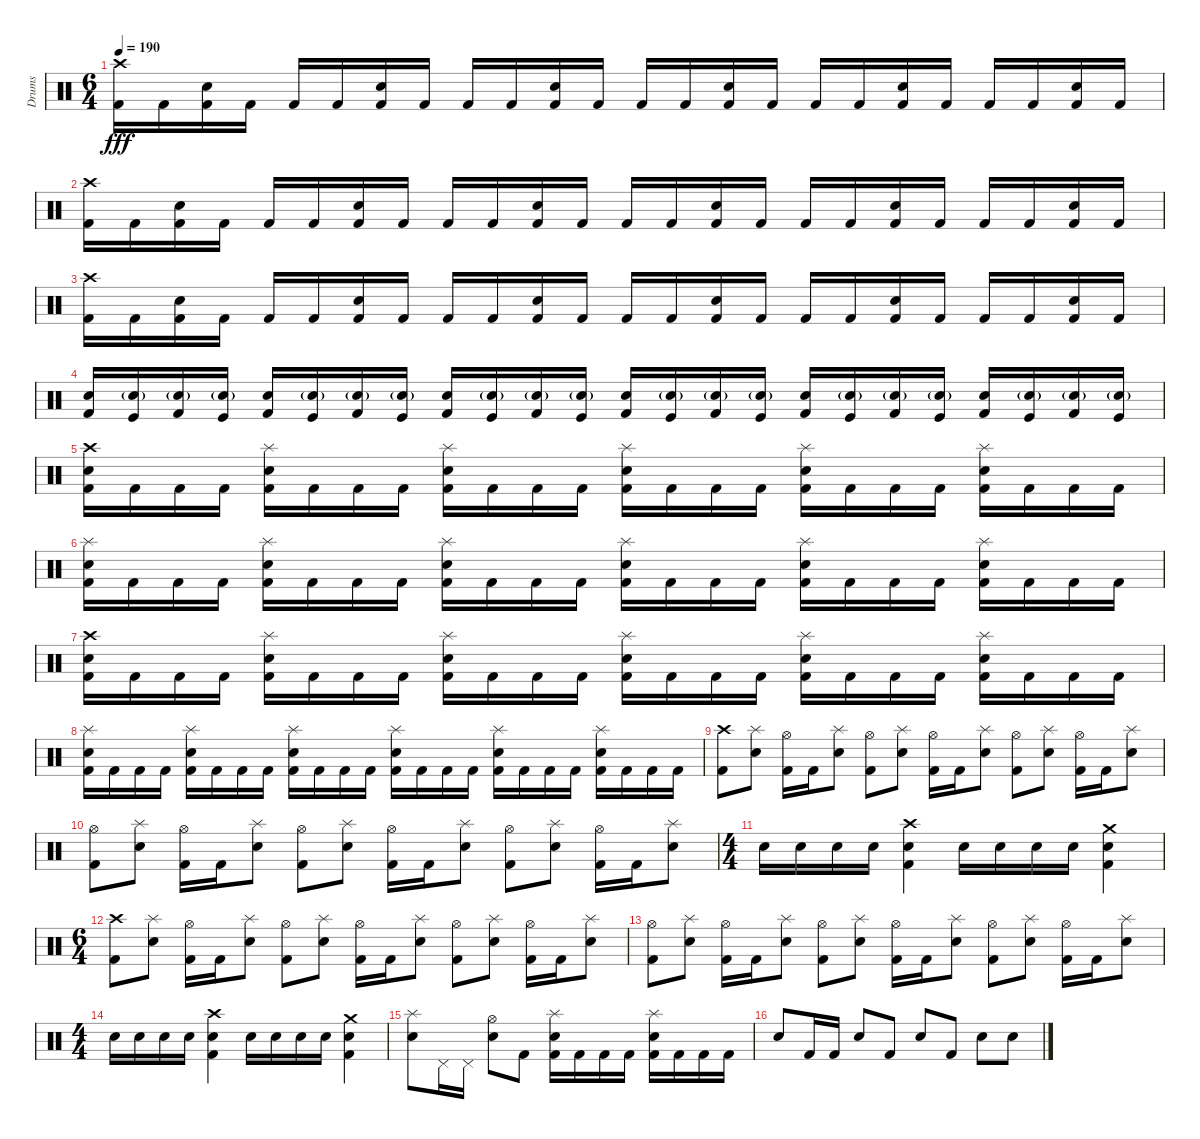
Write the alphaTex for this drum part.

\track ("Drums" "Drums") {instrument percussion}
\staff {score}
\articulation defaults
\ts (6 4)
\tempo 190
\clef neutral
\ks c
("Crash high (hit)" "Kick (hit) 2").16{dy fff} "Kick (hit) 2".16 ("Snare (hit) 2" "Kick (hit) 2").16 "Kick (hit) 2".16 "Kick (hit) 2".16 "Kick (hit) 2".16 ("Snare (hit) 2" "Kick (hit) 2").16 "Kick (hit) 2".16 "Kick (hit) 2".16 "Kick (hit) 2".16 ("Snare (hit) 2" "Kick (hit) 2").16 "Kick (hit) 2".16 "Kick (hit) 2".16 "Kick (hit) 2".16 ("Snare (hit) 2" "Kick (hit) 2").16 "Kick (hit) 2".16 "Kick (hit) 2".16 "Kick (hit) 2".16 ("Snare (hit) 2" "Kick (hit) 2").16 "Kick (hit) 2".16 "Kick (hit) 2".16 "Kick (hit) 2".16 ("Snare (hit) 2" "Kick (hit) 2").16 "Kick (hit) 2".16 |
("Crash high (hit)" "Kick (hit) 2").16 "Kick (hit) 2".16 ("Snare (hit) 2" "Kick (hit) 2").16 "Kick (hit) 2".16 "Kick (hit) 2".16 "Kick (hit) 2".16 ("Snare (hit) 2" "Kick (hit) 2").16 "Kick (hit) 2".16 "Kick (hit) 2".16 "Kick (hit) 2".16 ("Snare (hit) 2" "Kick (hit) 2").16 "Kick (hit) 2".16 "Kick (hit) 2".16 "Kick (hit) 2".16 ("Snare (hit) 2" "Kick (hit) 2").16 "Kick (hit) 2".16 "Kick (hit) 2".16 "Kick (hit) 2".16 ("Snare (hit) 2" "Kick (hit) 2").16 "Kick (hit) 2".16 "Kick (hit) 2".16 "Kick (hit) 2".16 ("Snare (hit) 2" "Kick (hit) 2").16 "Kick (hit) 2".16 |
("Crash high (hit)" "Kick (hit) 2").16 "Kick (hit) 2".16 ("Snare (hit) 2" "Kick (hit) 2").16 "Kick (hit) 2".16 "Kick (hit) 2".16 "Kick (hit) 2".16 ("Snare (hit) 2" "Kick (hit) 2").16 "Kick (hit) 2".16 "Kick (hit) 2".16 "Kick (hit) 2".16 ("Snare (hit) 2" "Kick (hit) 2").16 "Kick (hit) 2".16 "Kick (hit) 2".16 "Kick (hit) 2".16 ("Snare (hit) 2" "Kick (hit) 2").16 "Kick (hit) 2".16 "Kick (hit) 2".16 "Kick (hit) 2".16 ("Snare (hit) 2" "Kick (hit) 2").16 "Kick (hit) 2".16 "Kick (hit) 2".16 "Kick (hit) 2".16 ("Snare (hit) 2" "Kick (hit) 2").16 "Kick (hit) 2".16 |
("Snare (hit) 2" "Kick (hit) 2").16 ("Snare (hit) 2"{g} "Kick (hit)").16 ("Snare (hit) 2"{g} "Kick (hit) 2").16 ("Snare (hit) 2"{g} "Kick (hit)").16 ("Snare (hit) 2" "Kick (hit) 2").16 ("Snare (hit) 2"{g} "Kick (hit)").16 ("Snare (hit) 2"{g} "Kick (hit) 2").16 ("Snare (hit) 2"{g} "Kick (hit)").16 ("Snare (hit) 2" "Kick (hit) 2").16 ("Snare (hit) 2"{g} "Kick (hit)").16 ("Snare (hit) 2"{g} "Kick (hit) 2").16 ("Snare (hit) 2"{g} "Kick (hit)").16 ("Snare (hit) 2" "Kick (hit) 2").16 ("Snare (hit) 2"{g} "Kick (hit)").16 ("Snare (hit) 2"{g} "Kick (hit) 2").16 ("Snare (hit) 2"{g} "Kick (hit)").16 ("Snare (hit) 2" "Kick (hit) 2").16 ("Snare (hit) 2"{g} "Kick (hit)").16 ("Snare (hit) 2"{g} "Kick (hit) 2").16 ("Snare (hit) 2"{g} "Kick (hit)").16 ("Snare (hit) 2" "Kick (hit) 2").16 ("Snare (hit) 2"{g} "Kick (hit)").16 ("Snare (hit) 2"{g} "Kick (hit) 2").16 ("Snare (hit) 2"{g} "Kick (hit)").16 |
("Crash high (hit)" "Snare (hit) 2" "Kick (hit) 2").16 "Kick (hit) 2".16 "Kick (hit) 2".16 "Kick (hit) 2".16 ("Splash (hit)" "Snare (hit) 2" "Kick (hit) 2").16 "Kick (hit) 2".16 "Kick (hit) 2".16 "Kick (hit) 2".16 ("Splash (hit)" "Snare (hit) 2" "Kick (hit) 2").16 "Kick (hit) 2".16 "Kick (hit) 2".16 "Kick (hit) 2".16 ("Splash (hit)" "Snare (hit) 2" "Kick (hit) 2").16 "Kick (hit) 2".16 "Kick (hit) 2".16 "Kick (hit) 2".16 ("Splash (hit)" "Snare (hit) 2" "Kick (hit) 2").16 "Kick (hit) 2".16 "Kick (hit) 2".16 "Kick (hit) 2".16 ("Splash (hit)" "Snare (hit) 2" "Kick (hit) 2").16 "Kick (hit) 2".16 "Kick (hit) 2".16 "Kick (hit) 2".16 |
("Splash (hit)" "Snare (hit) 2" "Kick (hit) 2").16 "Kick (hit) 2".16 "Kick (hit) 2".16 "Kick (hit) 2".16 ("Splash (hit)" "Snare (hit) 2" "Kick (hit) 2").16 "Kick (hit) 2".16 "Kick (hit) 2".16 "Kick (hit) 2".16 ("Splash (hit)" "Snare (hit) 2" "Kick (hit) 2").16 "Kick (hit) 2".16 "Kick (hit) 2".16 "Kick (hit) 2".16 ("Splash (hit)" "Snare (hit) 2" "Kick (hit) 2").16 "Kick (hit) 2".16 "Kick (hit) 2".16 "Kick (hit) 2".16 ("Splash (hit)" "Snare (hit) 2" "Kick (hit) 2").16 "Kick (hit) 2".16 "Kick (hit) 2".16 "Kick (hit) 2".16 ("Splash (hit)" "Snare (hit) 2" "Kick (hit) 2").16 "Kick (hit) 2".16 "Kick (hit) 2".16 "Kick (hit) 2".16 |
("Crash high (hit)" "Snare (hit) 2" "Kick (hit) 2").16 "Kick (hit) 2".16 "Kick (hit) 2".16 "Kick (hit) 2".16 ("Splash (hit)" "Snare (hit) 2" "Kick (hit) 2").16 "Kick (hit) 2".16 "Kick (hit) 2".16 "Kick (hit) 2".16 ("Splash (hit)" "Snare (hit) 2" "Kick (hit) 2").16 "Kick (hit) 2".16 "Kick (hit) 2".16 "Kick (hit) 2".16 ("Splash (hit)" "Snare (hit) 2" "Kick (hit) 2").16 "Kick (hit) 2".16 "Kick (hit) 2".16 "Kick (hit) 2".16 ("Splash (hit)" "Snare (hit) 2" "Kick (hit) 2").16 "Kick (hit) 2".16 "Kick (hit) 2".16 "Kick (hit) 2".16 ("Splash (hit)" "Snare (hit) 2" "Kick (hit) 2").16 "Kick (hit) 2".16 "Kick (hit) 2".16 "Kick (hit) 2".16 |
("Splash (hit)" "Snare (hit) 2" "Kick (hit) 2").16 "Kick (hit) 2".16 "Kick (hit) 2".16 "Kick (hit) 2".16 ("Splash (hit)" "Snare (hit) 2" "Kick (hit) 2").16 "Kick (hit) 2".16 "Kick (hit) 2".16 "Kick (hit) 2".16 ("Splash (hit)" "Snare (hit) 2" "Kick (hit) 2").16 "Kick (hit) 2".16 "Kick (hit) 2".16 "Kick (hit) 2".16 ("Splash (hit)" "Snare (hit) 2" "Kick (hit) 2").16 "Kick (hit) 2".16 "Kick (hit) 2".16 "Kick (hit) 2".16 ("Splash (hit)" "Snare (hit) 2" "Kick (hit) 2").16 "Kick (hit) 2".16 "Kick (hit) 2".16 "Kick (hit) 2".16 ("Splash (hit)" "Snare (hit) 2" "Kick (hit) 2").16 "Kick (hit) 2".16 "Kick (hit) 2".16 "Kick (hit) 2".16 |
("Crash high (hit)" "Kick (hit) 2").8 ("Splash (hit)" "Snare (hit) 2").8 ("Hi-Hat (open)" "Kick (hit) 2").16 "Kick (hit) 2".16 ("Splash (hit)" "Snare (hit) 2").8 ("Hi-Hat (open)" "Kick (hit) 2").8 ("Splash (hit)" "Snare (hit) 2").8 ("Hi-Hat (open)" "Kick (hit) 2").16 "Kick (hit) 2".16 ("Splash (hit)" "Snare (hit) 2").8 ("Hi-Hat (open)" "Kick (hit) 2").8 ("Splash (hit)" "Snare (hit) 2").8 ("Hi-Hat (open)" "Kick (hit) 2").16 "Kick (hit) 2".16 ("Splash (hit)" "Snare (hit) 2").8 |
("Hi-Hat (open)" "Kick (hit) 2").8 ("Splash (hit)" "Snare (hit) 2").8 ("Hi-Hat (open)" "Kick (hit) 2").16 "Kick (hit) 2".16 ("Splash (hit)" "Snare (hit) 2").8 ("Hi-Hat (open)" "Kick (hit) 2").8 ("Splash (hit)" "Snare (hit) 2").8 ("Hi-Hat (open)" "Kick (hit) 2").16 "Kick (hit) 2".16 ("Splash (hit)" "Snare (hit) 2").8 ("Hi-Hat (open)" "Kick (hit) 2").8 ("Splash (hit)" "Snare (hit) 2").8 ("Hi-Hat (open)" "Kick (hit) 2").16 "Kick (hit) 2".16 ("Splash (hit)" "Snare (hit) 2").8 |
\ts (4 4)
"Snare (hit) 2".16 "Snare (hit) 2".16 "Snare (hit) 2".16 "Snare (hit) 2".16 ("Crash high (hit)" "Snare (hit) 2" "Kick (hit) 2").4 "Snare (hit) 2".16 "Snare (hit) 2".16 "Snare (hit) 2".16 "Snare (hit) 2".16 ("Crash medium (hit)" "Snare (hit) 2" "Kick (hit) 2").4 |
\ts (6 4)
("Crash high (hit)" "Kick (hit) 2").8 ("Splash (hit)" "Snare (hit) 2").8 ("Hi-Hat (open)" "Kick (hit) 2").16 "Kick (hit) 2".16 ("Splash (hit)" "Snare (hit) 2").8 ("Hi-Hat (open)" "Kick (hit) 2").8 ("Splash (hit)" "Snare (hit) 2").8 ("Hi-Hat (open)" "Kick (hit) 2").16 "Kick (hit) 2".16 ("Splash (hit)" "Snare (hit) 2").8 ("Hi-Hat (open)" "Kick (hit) 2").8 ("Splash (hit)" "Snare (hit) 2").8 ("Hi-Hat (open)" "Kick (hit) 2").16 "Kick (hit) 2".16 ("Splash (hit)" "Snare (hit) 2").8 |
("Hi-Hat (open)" "Kick (hit) 2").8 ("Splash (hit)" "Snare (hit) 2").8 ("Hi-Hat (open)" "Kick (hit) 2").16 "Kick (hit) 2".16 ("Splash (hit)" "Snare (hit) 2").8 ("Hi-Hat (open)" "Kick (hit) 2").8 ("Splash (hit)" "Snare (hit) 2").8 ("Hi-Hat (open)" "Kick (hit) 2").16 "Kick (hit) 2".16 ("Splash (hit)" "Snare (hit) 2").8 ("Hi-Hat (open)" "Kick (hit) 2").8 ("Splash (hit)" "Snare (hit) 2").8 ("Hi-Hat (open)" "Kick (hit) 2").16 "Kick (hit) 2".16 ("Splash (hit)" "Snare (hit) 2").8 |
\ts (4 4)
"Snare (hit) 2".16 "Snare (hit) 2".16 "Snare (hit) 2".16 "Snare (hit) 2".16 ("Crash high (hit)" "Snare (hit) 2" "Kick (hit) 2").4 "Snare (hit) 2".16 "Snare (hit) 2".16 "Snare (hit) 2".16 "Snare (hit) 2".16 ("Crash medium (hit)" "Snare (hit) 2" "Kick (hit) 2").4 |
("Splash (hit)" "Snare (hit) 2").8 "Pedal Hi-Hat (hit)".16 "Pedal Hi-Hat (hit)".16 ("Hi-Hat (open)" "Snare (hit) 2").8 "Kick (hit) 2".8 ("Splash (hit)" "Snare (hit) 2" "Kick (hit) 2").16 "Kick (hit) 2".16 "Kick (hit) 2".16 "Kick (hit) 2".16 ("Splash (hit)" "Snare (hit) 2" "Kick (hit) 2").16 "Kick (hit) 2".16 "Kick (hit) 2".16 "Kick (hit) 2".16 |
"Snare (hit) 2".8 "Kick (hit) 2".16 "Kick (hit) 2".16 "Snare (hit) 2".8 "Kick (hit) 2".8 "Snare (hit) 2".8 "Kick (hit) 2".8 "Snare (hit) 2".8 "Snare (hit) 2".8
